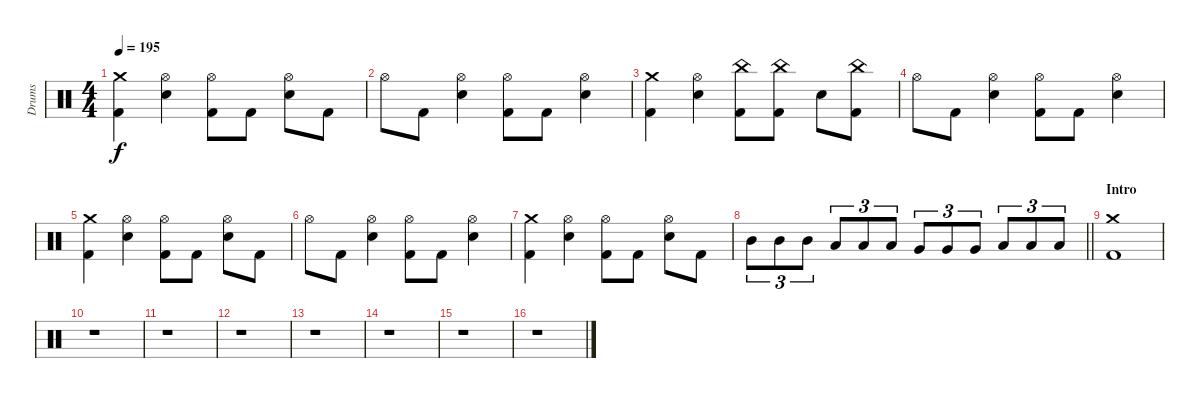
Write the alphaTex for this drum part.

\track ("Drums" "Drums") {instrument percussion}
\staff {score}
\articulation defaults
\ts (4 4)
\tempo 195
\clef neutral
\ks c
("Crash medium (hit)" "Kick (hit) 2").4{dy f} ("Hi-Hat (open)" "Snare (hit) 2").4 ("Hi-Hat (open)" "Kick (hit) 2").8 "Kick (hit) 2".8 ("Hi-Hat (open)" "Snare (hit) 2").8 "Kick (hit) 2".8 |
"Hi-Hat (open)".8 "Kick (hit) 2".8 ("Hi-Hat (open)" "Snare (hit) 2").4 ("Hi-Hat (open)" "Kick (hit) 2").8 "Kick (hit) 2".8 ("Hi-Hat (open)" "Snare (hit) 2").4 |
("Crash medium (hit)" "Kick (hit) 2").4 ("Hi-Hat (open)" "Snare (hit) 2").4 ("China (hit)" "Kick (hit) 2").8 ("China (hit)" "Kick (hit) 2").8 "Snare (hit) 2".8 ("China (hit)" "Kick (hit) 2").8 |
"Hi-Hat (open)".8 "Kick (hit) 2".8 ("Hi-Hat (open)" "Snare (hit) 2").4 ("Hi-Hat (open)" "Kick (hit) 2").8 "Kick (hit) 2".8 ("Hi-Hat (open)" "Snare (hit) 2").4 |
("Crash medium (hit)" "Kick (hit) 2").4 ("Hi-Hat (open)" "Snare (hit) 2").4 ("Hi-Hat (open)" "Kick (hit) 2").8 "Kick (hit) 2".8 ("Hi-Hat (open)" "Snare (hit) 2").8 "Kick (hit) 2".8 |
"Hi-Hat (open)".8 "Kick (hit) 2".8 ("Hi-Hat (open)" "Snare (hit) 2").4 ("Hi-Hat (open)" "Kick (hit) 2").8 "Kick (hit) 2".8 ("Hi-Hat (open)" "Snare (hit) 2").4 |
("Crash medium (hit)" "Kick (hit) 2").4 ("Hi-Hat (open)" "Snare (hit) 2").4 ("Hi-Hat (open)" "Kick (hit) 2").8 "Kick (hit) 2".8 ("Hi-Hat (open)" "Snare (hit) 2").8 "Kick (hit) 2".8 |
\barLineRight lightlight "Mid Tom (hit)".8{tu (3 2)} "Mid Tom (hit)".8{tu (3 2)} "Mid Tom (hit)".8{tu (3 2)} "Low Tom (hit)".8{tu (3 2)} "Low Tom (hit)".8{tu (3 2)} "Low Tom (hit)".8{tu (3 2)} "Very Low Tom (hit)".8{tu (3 2)} "Very Low Tom (hit)".8{tu (3 2)} "Very Low Tom (hit)".8{tu (3 2)} "Low Floor Tom (hit)".8{tu (3 2)} "Low Floor Tom (hit)".8{tu (3 2)} "Low Floor Tom (hit)".8{tu (3 2)}
|
\section ("" "Intro")
("Crash medium (hit)" "Kick (hit) 2").1 |
r.1 |
r.1 |
r.1 |
r.1 |
r.1 |
r.1 |
r.1
